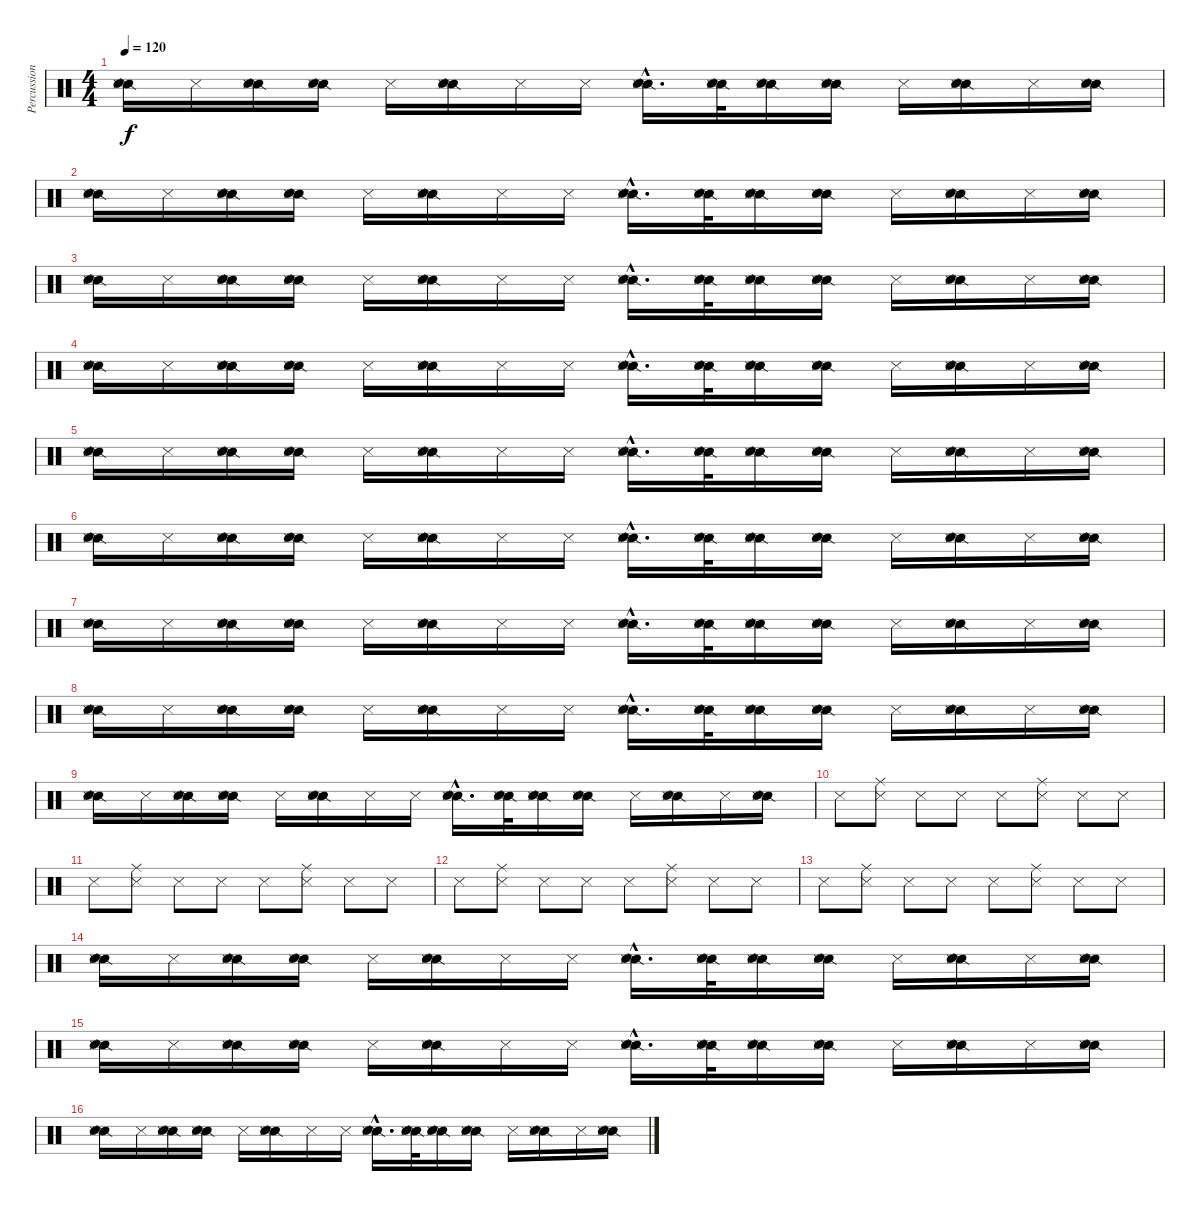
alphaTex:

\track ("Percussion" "Percussion") {instrument percussion}
\staff {score}
\articulation defaults
\ts (4 4)
\tempo 120
\clef neutral
\ks c
("Snare (side stick) 2" "Snare (hit) 2" "Metronome (hit)"{x}).16{dy f} "Metronome (hit)"{x}.16 ("Snare (side stick) 2" "Snare (hit) 2" "Metronome (hit)"{x}).16 ("Snare (side stick) 2" "Snare (hit) 2" "Metronome (hit)"{x}).16 "Metronome (hit)"{x}.16 ("Snare (side stick) 2" "Snare (hit) 2" "Metronome (hit)"{x}).16 "Metronome (hit)"{x}.16 "Metronome (hit)"{x}.16 ("Snare (side stick) 2"{hac} "Snare (hit) 2"{hac} "Metronome (hit)"{hac x}).16{d} ("Snare (side stick) 2" "Snare (hit) 2" "Metronome (hit)"{x}).32 ("Snare (side stick) 2" "Snare (hit) 2" "Metronome (hit)"{x}).16 ("Snare (side stick) 2" "Snare (hit) 2" "Metronome (hit)"{x}).16 "Metronome (hit)"{x}.16 ("Snare (side stick) 2" "Snare (hit) 2" "Metronome (hit)"{x}).16 "Metronome (hit)"{x}.16 ("Snare (side stick) 2" "Snare (hit) 2" "Metronome (hit)"{x}).16 |
("Snare (side stick) 2" "Snare (hit) 2" "Metronome (hit)"{x}).16 "Metronome (hit)"{x}.16 ("Snare (side stick) 2" "Snare (hit) 2" "Metronome (hit)"{x}).16 ("Snare (side stick) 2" "Snare (hit) 2" "Metronome (hit)"{x}).16 "Metronome (hit)"{x}.16 ("Snare (side stick) 2" "Snare (hit) 2" "Metronome (hit)"{x}).16 "Metronome (hit)"{x}.16 "Metronome (hit)"{x}.16 ("Snare (side stick) 2"{hac} "Snare (hit) 2"{hac} "Metronome (hit)"{hac x}).16{d} ("Snare (side stick) 2" "Snare (hit) 2" "Metronome (hit)"{x}).32 ("Snare (side stick) 2" "Snare (hit) 2" "Metronome (hit)"{x}).16 ("Snare (side stick) 2" "Snare (hit) 2" "Metronome (hit)"{x}).16 "Metronome (hit)"{x}.16 ("Snare (side stick) 2" "Snare (hit) 2" "Metronome (hit)"{x}).16 "Metronome (hit)"{x}.16 ("Snare (side stick) 2" "Snare (hit) 2" "Metronome (hit)"{x}).16 |
("Snare (side stick) 2" "Snare (hit) 2" "Metronome (hit)"{x}).16 "Metronome (hit)"{x}.16 ("Snare (side stick) 2" "Snare (hit) 2" "Metronome (hit)"{x}).16 ("Snare (side stick) 2" "Snare (hit) 2" "Metronome (hit)"{x}).16 "Metronome (hit)"{x}.16 ("Snare (side stick) 2" "Snare (hit) 2" "Metronome (hit)"{x}).16 "Metronome (hit)"{x}.16 "Metronome (hit)"{x}.16 ("Snare (side stick) 2"{hac} "Snare (hit) 2"{hac} "Metronome (hit)"{hac x}).16{d} ("Snare (side stick) 2" "Snare (hit) 2" "Metronome (hit)"{x}).32 ("Snare (side stick) 2" "Snare (hit) 2" "Metronome (hit)"{x}).16 ("Snare (side stick) 2" "Snare (hit) 2" "Metronome (hit)"{x}).16 "Metronome (hit)"{x}.16 ("Snare (side stick) 2" "Snare (hit) 2" "Metronome (hit)"{x}).16 "Metronome (hit)"{x}.16 ("Snare (side stick) 2" "Snare (hit) 2" "Metronome (hit)"{x}).16 |
("Snare (side stick) 2" "Snare (hit) 2" "Metronome (hit)"{x}).16 "Metronome (hit)"{x}.16 ("Snare (side stick) 2" "Snare (hit) 2" "Metronome (hit)"{x}).16 ("Snare (side stick) 2" "Snare (hit) 2" "Metronome (hit)"{x}).16 "Metronome (hit)"{x}.16 ("Snare (side stick) 2" "Snare (hit) 2" "Metronome (hit)"{x}).16 "Metronome (hit)"{x}.16 "Metronome (hit)"{x}.16 ("Snare (side stick) 2"{hac} "Snare (hit) 2"{hac} "Metronome (hit)"{hac x}).16{d} ("Snare (side stick) 2" "Snare (hit) 2" "Metronome (hit)"{x}).32 ("Snare (side stick) 2" "Snare (hit) 2" "Metronome (hit)"{x}).16 ("Snare (side stick) 2" "Snare (hit) 2" "Metronome (hit)"{x}).16 "Metronome (hit)"{x}.16 ("Snare (side stick) 2" "Snare (hit) 2" "Metronome (hit)"{x}).16 "Metronome (hit)"{x}.16 ("Snare (side stick) 2" "Snare (hit) 2" "Metronome (hit)"{x}).16 |
("Snare (side stick) 2" "Snare (hit) 2" "Metronome (hit)"{x}).16 "Metronome (hit)"{x}.16 ("Snare (side stick) 2" "Snare (hit) 2" "Metronome (hit)"{x}).16 ("Snare (side stick) 2" "Snare (hit) 2" "Metronome (hit)"{x}).16 "Metronome (hit)"{x}.16 ("Snare (side stick) 2" "Snare (hit) 2" "Metronome (hit)"{x}).16 "Metronome (hit)"{x}.16 "Metronome (hit)"{x}.16 ("Snare (side stick) 2"{hac} "Snare (hit) 2"{hac} "Metronome (hit)"{hac x}).16{d} ("Snare (side stick) 2" "Snare (hit) 2" "Metronome (hit)"{x}).32 ("Snare (side stick) 2" "Snare (hit) 2" "Metronome (hit)"{x}).16 ("Snare (side stick) 2" "Snare (hit) 2" "Metronome (hit)"{x}).16 "Metronome (hit)"{x}.16 ("Snare (side stick) 2" "Snare (hit) 2" "Metronome (hit)"{x}).16 "Metronome (hit)"{x}.16 ("Snare (side stick) 2" "Snare (hit) 2" "Metronome (hit)"{x}).16 |
("Snare (side stick) 2" "Snare (hit) 2" "Metronome (hit)"{x}).16 "Metronome (hit)"{x}.16 ("Snare (side stick) 2" "Snare (hit) 2" "Metronome (hit)"{x}).16 ("Snare (side stick) 2" "Snare (hit) 2" "Metronome (hit)"{x}).16 "Metronome (hit)"{x}.16 ("Snare (side stick) 2" "Snare (hit) 2" "Metronome (hit)"{x}).16 "Metronome (hit)"{x}.16 "Metronome (hit)"{x}.16 ("Snare (side stick) 2"{hac} "Snare (hit) 2"{hac} "Metronome (hit)"{hac x}).16{d} ("Snare (side stick) 2" "Snare (hit) 2" "Metronome (hit)"{x}).32 ("Snare (side stick) 2" "Snare (hit) 2" "Metronome (hit)"{x}).16 ("Snare (side stick) 2" "Snare (hit) 2" "Metronome (hit)"{x}).16 "Metronome (hit)"{x}.16 ("Snare (side stick) 2" "Snare (hit) 2" "Metronome (hit)"{x}).16 "Metronome (hit)"{x}.16 ("Snare (side stick) 2" "Snare (hit) 2" "Metronome (hit)"{x}).16 |
("Snare (side stick) 2" "Snare (hit) 2" "Metronome (hit)"{x}).16 "Metronome (hit)"{x}.16 ("Snare (side stick) 2" "Snare (hit) 2" "Metronome (hit)"{x}).16 ("Snare (side stick) 2" "Snare (hit) 2" "Metronome (hit)"{x}).16 "Metronome (hit)"{x}.16 ("Snare (side stick) 2" "Snare (hit) 2" "Metronome (hit)"{x}).16 "Metronome (hit)"{x}.16 "Metronome (hit)"{x}.16 ("Snare (side stick) 2"{hac} "Snare (hit) 2"{hac} "Metronome (hit)"{hac x}).16{d} ("Snare (side stick) 2" "Snare (hit) 2" "Metronome (hit)"{x}).32 ("Snare (side stick) 2" "Snare (hit) 2" "Metronome (hit)"{x}).16 ("Snare (side stick) 2" "Snare (hit) 2" "Metronome (hit)"{x}).16 "Metronome (hit)"{x}.16 ("Snare (side stick) 2" "Snare (hit) 2" "Metronome (hit)"{x}).16 "Metronome (hit)"{x}.16 ("Snare (side stick) 2" "Snare (hit) 2" "Metronome (hit)"{x}).16 |
("Snare (side stick) 2" "Snare (hit) 2" "Metronome (hit)"{x}).16 "Metronome (hit)"{x}.16 ("Snare (side stick) 2" "Snare (hit) 2" "Metronome (hit)"{x}).16 ("Snare (side stick) 2" "Snare (hit) 2" "Metronome (hit)"{x}).16 "Metronome (hit)"{x}.16 ("Snare (side stick) 2" "Snare (hit) 2" "Metronome (hit)"{x}).16 "Metronome (hit)"{x}.16 "Metronome (hit)"{x}.16 ("Snare (side stick) 2"{hac} "Snare (hit) 2"{hac} "Metronome (hit)"{hac x}).16{d} ("Snare (side stick) 2" "Snare (hit) 2" "Metronome (hit)"{x}).32 ("Snare (side stick) 2" "Snare (hit) 2" "Metronome (hit)"{x}).16 ("Snare (side stick) 2" "Snare (hit) 2" "Metronome (hit)"{x}).16 "Metronome (hit)"{x}.16 ("Snare (side stick) 2" "Snare (hit) 2" "Metronome (hit)"{x}).16 "Metronome (hit)"{x}.16 ("Snare (side stick) 2" "Snare (hit) 2" "Metronome (hit)"{x}).16 |
("Snare (side stick) 2" "Snare (hit) 2" "Metronome (hit)"{x}).16 "Metronome (hit)"{x}.16 ("Snare (side stick) 2" "Snare (hit) 2" "Metronome (hit)"{x}).16 ("Snare (side stick) 2" "Snare (hit) 2" "Metronome (hit)"{x}).16 "Metronome (hit)"{x}.16 ("Snare (side stick) 2" "Snare (hit) 2" "Metronome (hit)"{x}).16 "Metronome (hit)"{x}.16 "Metronome (hit)"{x}.16 ("Snare (side stick) 2"{hac} "Snare (hit) 2"{hac} "Metronome (hit)"{hac x}).16{d} ("Snare (side stick) 2" "Snare (hit) 2" "Metronome (hit)"{x}).32 ("Snare (side stick) 2" "Snare (hit) 2" "Metronome (hit)"{x}).16 ("Snare (side stick) 2" "Snare (hit) 2" "Metronome (hit)"{x}).16 "Metronome (hit)"{x}.16 ("Snare (side stick) 2" "Snare (hit) 2" "Metronome (hit)"{x}).16 "Metronome (hit)"{x}.16 ("Snare (side stick) 2" "Snare (hit) 2" "Metronome (hit)"{x}).16 |
"Metronome (hit)"{x}.8 ("Ride (middle)" "Metronome (hit)"{x}).8 "Metronome (hit)"{x}.8 "Metronome (hit)"{x}.8 "Metronome (hit)"{x}.8 ("Ride (middle)" "Metronome (hit)"{x}).8 "Metronome (hit)"{x}.8 "Metronome (hit)"{x}.8 |
"Metronome (hit)"{x}.8 ("Ride (middle)" "Metronome (hit)"{x}).8 "Metronome (hit)"{x}.8 "Metronome (hit)"{x}.8 "Metronome (hit)"{x}.8 ("Ride (middle)" "Metronome (hit)"{x}).8 "Metronome (hit)"{x}.8 "Metronome (hit)"{x}.8 |
"Metronome (hit)"{x}.8 ("Ride (middle)" "Metronome (hit)"{x}).8 "Metronome (hit)"{x}.8 "Metronome (hit)"{x}.8 "Metronome (hit)"{x}.8 ("Ride (middle)" "Metronome (hit)"{x}).8 "Metronome (hit)"{x}.8 "Metronome (hit)"{x}.8 |
"Metronome (hit)"{x}.8 ("Ride (middle)" "Metronome (hit)"{x}).8 "Metronome (hit)"{x}.8 "Metronome (hit)"{x}.8 "Metronome (hit)"{x}.8 ("Ride (middle)" "Metronome (hit)"{x}).8 "Metronome (hit)"{x}.8 "Metronome (hit)"{x}.8 |
("Snare (side stick) 2" "Snare (hit) 2" "Metronome (hit)"{x}).16 "Metronome (hit)"{x}.16 ("Snare (side stick) 2" "Snare (hit) 2" "Metronome (hit)"{x}).16 ("Snare (side stick) 2" "Snare (hit) 2" "Metronome (hit)"{x}).16 "Metronome (hit)"{x}.16 ("Snare (side stick) 2" "Snare (hit) 2" "Metronome (hit)"{x}).16 "Metronome (hit)"{x}.16 "Metronome (hit)"{x}.16 ("Snare (side stick) 2"{hac} "Snare (hit) 2"{hac} "Metronome (hit)"{hac x}).16{d} ("Snare (side stick) 2" "Snare (hit) 2" "Metronome (hit)"{x}).32 ("Snare (side stick) 2" "Snare (hit) 2" "Metronome (hit)"{x}).16 ("Snare (side stick) 2" "Snare (hit) 2" "Metronome (hit)"{x}).16 "Metronome (hit)"{x}.16 ("Snare (side stick) 2" "Snare (hit) 2" "Metronome (hit)"{x}).16 "Metronome (hit)"{x}.16 ("Snare (side stick) 2" "Snare (hit) 2" "Metronome (hit)"{x}).16 |
("Snare (side stick) 2" "Snare (hit) 2" "Metronome (hit)"{x}).16 "Metronome (hit)"{x}.16 ("Snare (side stick) 2" "Snare (hit) 2" "Metronome (hit)"{x}).16 ("Snare (side stick) 2" "Snare (hit) 2" "Metronome (hit)"{x}).16 "Metronome (hit)"{x}.16 ("Snare (side stick) 2" "Snare (hit) 2" "Metronome (hit)"{x}).16 "Metronome (hit)"{x}.16 "Metronome (hit)"{x}.16 ("Snare (side stick) 2"{hac} "Snare (hit) 2"{hac} "Metronome (hit)"{hac x}).16{d} ("Snare (side stick) 2" "Snare (hit) 2" "Metronome (hit)"{x}).32 ("Snare (side stick) 2" "Snare (hit) 2" "Metronome (hit)"{x}).16 ("Snare (side stick) 2" "Snare (hit) 2" "Metronome (hit)"{x}).16 "Metronome (hit)"{x}.16 ("Snare (side stick) 2" "Snare (hit) 2" "Metronome (hit)"{x}).16 "Metronome (hit)"{x}.16 ("Snare (side stick) 2" "Snare (hit) 2" "Metronome (hit)"{x}).16 |
("Snare (side stick) 2" "Snare (hit) 2" "Metronome (hit)"{x}).16 "Metronome (hit)"{x}.16 ("Snare (side stick) 2" "Snare (hit) 2" "Metronome (hit)"{x}).16 ("Snare (side stick) 2" "Snare (hit) 2" "Metronome (hit)"{x}).16 "Metronome (hit)"{x}.16 ("Snare (side stick) 2" "Snare (hit) 2" "Metronome (hit)"{x}).16 "Metronome (hit)"{x}.16 "Metronome (hit)"{x}.16 ("Snare (side stick) 2"{hac} "Snare (hit) 2"{hac} "Metronome (hit)"{hac x}).16{d} ("Snare (side stick) 2" "Snare (hit) 2" "Metronome (hit)"{x}).32 ("Snare (side stick) 2" "Snare (hit) 2" "Metronome (hit)"{x}).16 ("Snare (side stick) 2" "Snare (hit) 2" "Metronome (hit)"{x}).16 "Metronome (hit)"{x}.16 ("Snare (side stick) 2" "Snare (hit) 2" "Metronome (hit)"{x}).16 "Metronome (hit)"{x}.16 ("Snare (side stick) 2" "Snare (hit) 2" "Metronome (hit)"{x}).16
